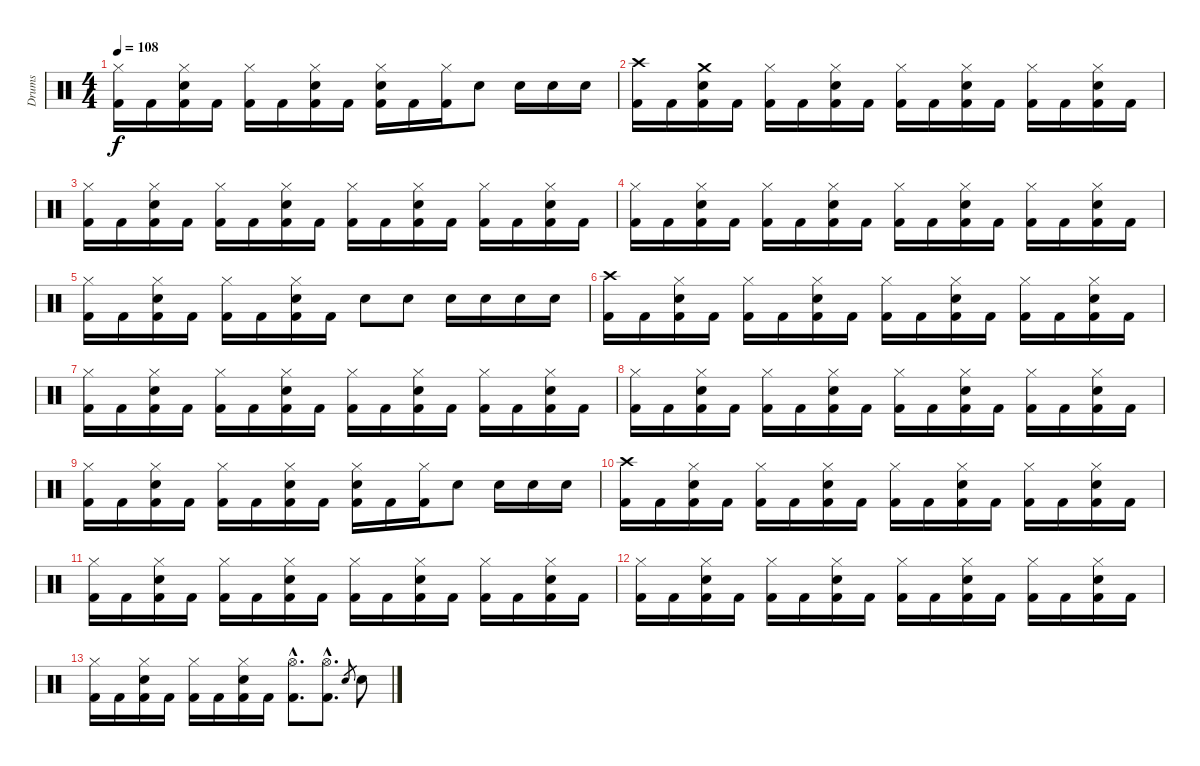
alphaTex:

\track ("Drums" "Drums") {instrument percussion}
\staff {score}
\articulation defaults
\ts (4 4)
\tempo 108
\clef neutral
\ks c
("Hi-Hat (closed)" "Kick (hit) 2").16{dy f} "Kick (hit) 2".16 ("Hi-Hat (closed)" "Snare (hit) 2" "Kick (hit) 2").16 "Kick (hit) 2".16 ("Hi-Hat (closed)" "Kick (hit) 2").16 "Kick (hit) 2".16 ("Hi-Hat (closed)" "Snare (hit) 2" "Kick (hit) 2").16 "Kick (hit) 2".16 ("Hi-Hat (closed)" "Snare (hit) 2" "Kick (hit) 2").16 "Kick (hit) 2".16 ("Hi-Hat (closed)" "Kick (hit) 2").16 "Snare (hit) 2".8 "Snare (hit) 2".16 "Snare (hit) 2".16 "Snare (hit) 2".16 |
("Crash high (hit)" "Kick (hit) 2").16 "Kick (hit) 2".16 ("Crash medium (hit)" "Snare (hit) 2" "Kick (hit) 2").16 "Kick (hit) 2".16 ("Hi-Hat (closed)" "Kick (hit) 2").16 "Kick (hit) 2".16 ("Hi-Hat (closed)" "Snare (hit) 2" "Kick (hit) 2").16 "Kick (hit) 2".16 ("Hi-Hat (closed)" "Kick (hit) 2").16 "Kick (hit) 2".16 ("Hi-Hat (closed)" "Snare (hit) 2" "Kick (hit) 2").16 "Kick (hit) 2".16 ("Hi-Hat (closed)" "Kick (hit) 2").16 "Kick (hit) 2".16 ("Hi-Hat (closed)" "Snare (hit) 2" "Kick (hit) 2").16 "Kick (hit) 2".16 |
("Hi-Hat (closed)" "Kick (hit) 2").16 "Kick (hit) 2".16 ("Hi-Hat (closed)" "Snare (hit) 2" "Kick (hit) 2").16 "Kick (hit) 2".16 ("Hi-Hat (closed)" "Kick (hit) 2").16 "Kick (hit) 2".16 ("Hi-Hat (closed)" "Snare (hit) 2" "Kick (hit) 2").16 "Kick (hit) 2".16 ("Hi-Hat (closed)" "Kick (hit) 2").16 "Kick (hit) 2".16 ("Hi-Hat (closed)" "Snare (hit) 2" "Kick (hit) 2").16 "Kick (hit) 2".16 ("Hi-Hat (closed)" "Kick (hit) 2").16 "Kick (hit) 2".16 ("Hi-Hat (closed)" "Snare (hit) 2" "Kick (hit) 2").16 "Kick (hit) 2".16 |
("Hi-Hat (closed)" "Kick (hit) 2").16 "Kick (hit) 2".16 ("Hi-Hat (closed)" "Snare (hit) 2" "Kick (hit) 2").16 "Kick (hit) 2".16 ("Hi-Hat (closed)" "Kick (hit) 2").16 "Kick (hit) 2".16 ("Hi-Hat (closed)" "Snare (hit) 2" "Kick (hit) 2").16 "Kick (hit) 2".16 ("Hi-Hat (closed)" "Kick (hit) 2").16 "Kick (hit) 2".16 ("Hi-Hat (closed)" "Snare (hit) 2" "Kick (hit) 2").16 "Kick (hit) 2".16 ("Hi-Hat (closed)" "Kick (hit) 2").16 "Kick (hit) 2".16 ("Hi-Hat (closed)" "Snare (hit) 2" "Kick (hit) 2").16 "Kick (hit) 2".16 |
("Hi-Hat (closed)" "Kick (hit) 2").16 "Kick (hit) 2".16 ("Hi-Hat (closed)" "Snare (hit) 2" "Kick (hit) 2").16 "Kick (hit) 2".16 ("Hi-Hat (closed)" "Kick (hit) 2").16 "Kick (hit) 2".16 ("Hi-Hat (closed)" "Snare (hit) 2" "Kick (hit) 2").16 "Kick (hit) 2".16 "Snare (hit) 2".8 "Snare (hit) 2".8 "Snare (hit) 2".16 "Snare (hit) 2".16 "Snare (hit) 2".16 "Snare (hit) 2".16 |
("Crash high (hit)" "Kick (hit) 2").16 "Kick (hit) 2".16 ("Hi-Hat (closed)" "Snare (hit) 2" "Kick (hit) 2").16 "Kick (hit) 2".16 ("Hi-Hat (closed)" "Kick (hit) 2").16 "Kick (hit) 2".16 ("Hi-Hat (closed)" "Snare (hit) 2" "Kick (hit) 2").16 "Kick (hit) 2".16 ("Hi-Hat (closed)" "Kick (hit) 2").16 "Kick (hit) 2".16 ("Hi-Hat (closed)" "Snare (hit) 2" "Kick (hit) 2").16 "Kick (hit) 2".16 ("Hi-Hat (closed)" "Kick (hit) 2").16 "Kick (hit) 2".16 ("Hi-Hat (closed)" "Snare (hit) 2" "Kick (hit) 2").16 "Kick (hit) 2".16 |
("Hi-Hat (closed)" "Kick (hit) 2").16 "Kick (hit) 2".16 ("Hi-Hat (closed)" "Snare (hit) 2" "Kick (hit) 2").16 "Kick (hit) 2".16 ("Hi-Hat (closed)" "Kick (hit) 2").16 "Kick (hit) 2".16 ("Hi-Hat (closed)" "Snare (hit) 2" "Kick (hit) 2").16 "Kick (hit) 2".16 ("Hi-Hat (closed)" "Kick (hit) 2").16 "Kick (hit) 2".16 ("Hi-Hat (closed)" "Snare (hit) 2" "Kick (hit) 2").16 "Kick (hit) 2".16 ("Hi-Hat (closed)" "Kick (hit) 2").16 "Kick (hit) 2".16 ("Hi-Hat (closed)" "Snare (hit) 2" "Kick (hit) 2").16 "Kick (hit) 2".16 |
("Hi-Hat (closed)" "Kick (hit) 2").16 "Kick (hit) 2".16 ("Hi-Hat (closed)" "Snare (hit) 2" "Kick (hit) 2").16 "Kick (hit) 2".16 ("Hi-Hat (closed)" "Kick (hit) 2").16 "Kick (hit) 2".16 ("Hi-Hat (closed)" "Snare (hit) 2" "Kick (hit) 2").16 "Kick (hit) 2".16 ("Hi-Hat (closed)" "Kick (hit) 2").16 "Kick (hit) 2".16 ("Hi-Hat (closed)" "Snare (hit) 2" "Kick (hit) 2").16 "Kick (hit) 2".16 ("Hi-Hat (closed)" "Kick (hit) 2").16 "Kick (hit) 2".16 ("Hi-Hat (closed)" "Snare (hit) 2" "Kick (hit) 2").16 "Kick (hit) 2".16 |
("Hi-Hat (closed)" "Kick (hit) 2").16 "Kick (hit) 2".16 ("Hi-Hat (closed)" "Snare (hit) 2" "Kick (hit) 2").16 "Kick (hit) 2".16 ("Hi-Hat (closed)" "Kick (hit) 2").16 "Kick (hit) 2".16 ("Hi-Hat (closed)" "Snare (hit) 2" "Kick (hit) 2").16 "Kick (hit) 2".16 ("Hi-Hat (closed)" "Snare (hit) 2" "Kick (hit) 2").16 "Kick (hit) 2".16 ("Hi-Hat (closed)" "Kick (hit) 2").16 "Snare (hit) 2".8 "Snare (hit) 2".16 "Snare (hit) 2".16 "Snare (hit) 2".16 |
("Crash high (hit)" "Kick (hit) 2").16 "Kick (hit) 2".16 ("Hi-Hat (closed)" "Snare (hit) 2" "Kick (hit) 2").16 "Kick (hit) 2".16 ("Hi-Hat (closed)" "Kick (hit) 2").16 "Kick (hit) 2".16 ("Hi-Hat (closed)" "Snare (hit) 2" "Kick (hit) 2").16 "Kick (hit) 2".16 ("Hi-Hat (closed)" "Kick (hit) 2").16 "Kick (hit) 2".16 ("Hi-Hat (closed)" "Snare (hit) 2" "Kick (hit) 2").16 "Kick (hit) 2".16 ("Hi-Hat (closed)" "Kick (hit) 2").16 "Kick (hit) 2".16 ("Hi-Hat (closed)" "Snare (hit) 2" "Kick (hit) 2").16 "Kick (hit) 2".16 |
("Hi-Hat (closed)" "Kick (hit) 2").16 "Kick (hit) 2".16 ("Hi-Hat (closed)" "Snare (hit) 2" "Kick (hit) 2").16 "Kick (hit) 2".16 ("Hi-Hat (closed)" "Kick (hit) 2").16 "Kick (hit) 2".16 ("Hi-Hat (closed)" "Snare (hit) 2" "Kick (hit) 2").16 "Kick (hit) 2".16 ("Hi-Hat (closed)" "Kick (hit) 2").16 "Kick (hit) 2".16 ("Hi-Hat (closed)" "Snare (hit) 2" "Kick (hit) 2").16 "Kick (hit) 2".16 ("Hi-Hat (closed)" "Kick (hit) 2").16 "Kick (hit) 2".16 ("Hi-Hat (closed)" "Snare (hit) 2" "Kick (hit) 2").16 "Kick (hit) 2".16 |
("Hi-Hat (closed)" "Kick (hit) 2").16 "Kick (hit) 2".16 ("Hi-Hat (closed)" "Snare (hit) 2" "Kick (hit) 2").16 "Kick (hit) 2".16 ("Hi-Hat (closed)" "Kick (hit) 2").16 "Kick (hit) 2".16 ("Hi-Hat (closed)" "Snare (hit) 2" "Kick (hit) 2").16 "Kick (hit) 2".16 ("Hi-Hat (closed)" "Kick (hit) 2").16 "Kick (hit) 2".16 ("Hi-Hat (closed)" "Snare (hit) 2" "Kick (hit) 2").16 "Kick (hit) 2".16 ("Hi-Hat (closed)" "Kick (hit) 2").16 "Kick (hit) 2".16 ("Hi-Hat (closed)" "Snare (hit) 2" "Kick (hit) 2").16 "Kick (hit) 2".16 |
("Hi-Hat (closed)" "Kick (hit) 2").16 "Kick (hit) 2".16 ("Hi-Hat (closed)" "Snare (hit) 2" "Kick (hit) 2").16 "Kick (hit) 2".16 ("Hi-Hat (closed)" "Kick (hit) 2").16 "Kick (hit) 2".16 ("Hi-Hat (closed)" "Snare (hit) 2" "Kick (hit) 2").16 "Kick (hit) 2".16 ("Hi-Hat (open)"{hac} "Kick (hit) 2"{hac}).8{d} ("Hi-Hat (open)"{hac} "Kick (hit) 2"{hac}).8{d} "Snare (hit) 2".8{gr} "Snare (hit) 2".8
